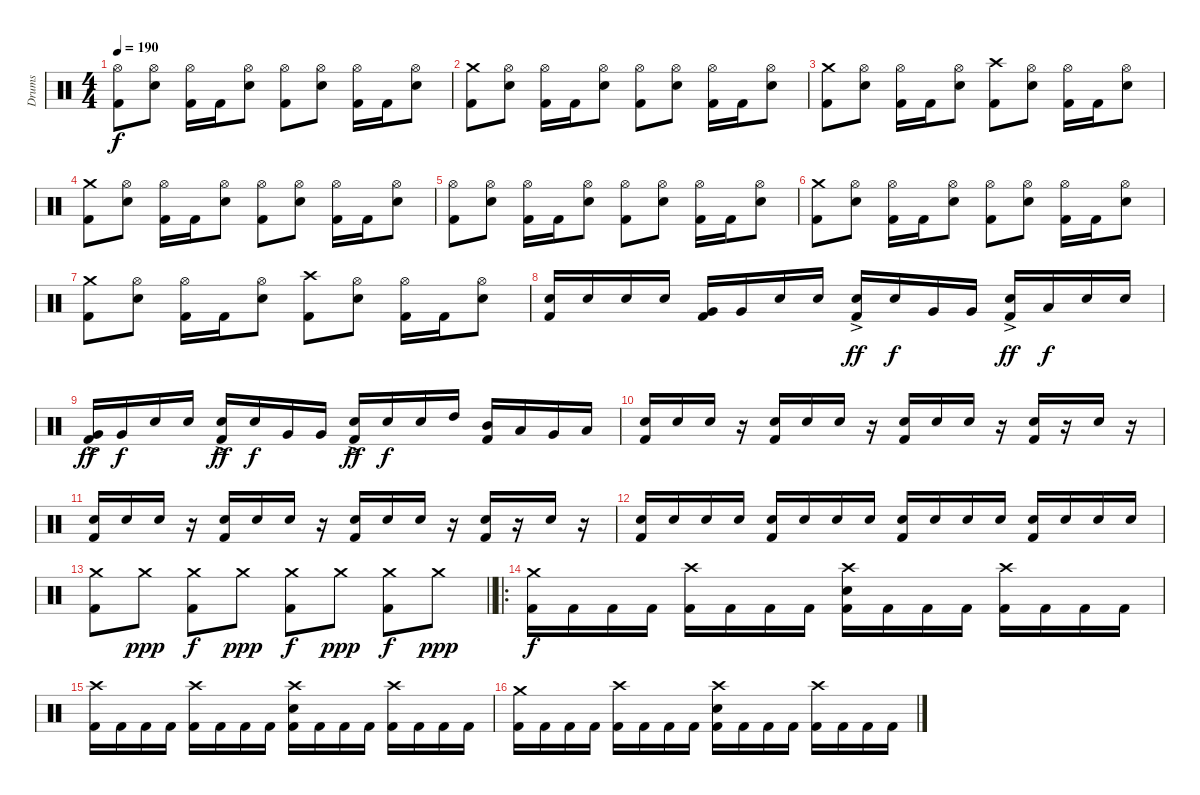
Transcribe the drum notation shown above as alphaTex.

\track ("Drums" "Drums") {instrument percussion}
\staff {score}
\articulation defaults
\ts (4 4)
\tempo 190
\clef neutral
\ks c
("Hi-Hat (open)" "Kick (hit) 2").8{dy f} ("Hi-Hat (open)" "Electric Snare (hit)").8 ("Hi-Hat (open)" "Kick (hit) 2").16 "Kick (hit) 2".16 ("Hi-Hat (open)" "Electric Snare (hit)").8 ("Hi-Hat (open)" "Kick (hit) 2").8 ("Hi-Hat (open)" "Electric Snare (hit)").8 ("Hi-Hat (open)" "Kick (hit) 2").16 "Kick (hit) 2".16 ("Hi-Hat (open)" "Electric Snare (hit)").8 |
("Crash medium (hit)" "Kick (hit) 2").8 ("Hi-Hat (open)" "Electric Snare (hit)").8 ("Hi-Hat (open)" "Kick (hit) 2").16 "Kick (hit) 2".16 ("Hi-Hat (open)" "Electric Snare (hit)").8 ("Hi-Hat (open)" "Kick (hit) 2").8 ("Hi-Hat (open)" "Electric Snare (hit)").8 ("Hi-Hat (open)" "Kick (hit) 2").16 "Kick (hit) 2".16 ("Hi-Hat (open)" "Electric Snare (hit)").8 |
("Crash medium (hit)" "Kick (hit) 2").8 ("Hi-Hat (open)" "Electric Snare (hit)").8 ("Hi-Hat (open)" "Kick (hit) 2").16 "Kick (hit) 2".16 ("Hi-Hat (open)" "Electric Snare (hit)").8 ("Crash high (hit)" "Kick (hit) 2").8 ("Hi-Hat (open)" "Electric Snare (hit)").8 ("Hi-Hat (open)" "Kick (hit) 2").16 "Kick (hit) 2".16 ("Hi-Hat (open)" "Electric Snare (hit)").8 |
("Crash medium (hit)" "Kick (hit) 2").8 ("Hi-Hat (open)" "Electric Snare (hit)").8 ("Hi-Hat (open)" "Kick (hit) 2").16 "Kick (hit) 2".16 ("Hi-Hat (open)" "Electric Snare (hit)").8 ("Hi-Hat (open)" "Kick (hit) 2").8 ("Hi-Hat (open)" "Electric Snare (hit)").8 ("Hi-Hat (open)" "Kick (hit) 2").16 "Kick (hit) 2".16 ("Hi-Hat (open)" "Electric Snare (hit)").8 |
("Hi-Hat (open)" "Kick (hit) 2").8 ("Hi-Hat (open)" "Electric Snare (hit)").8 ("Hi-Hat (open)" "Kick (hit) 2").16 "Kick (hit) 2".16 ("Hi-Hat (open)" "Electric Snare (hit)").8 ("Hi-Hat (open)" "Kick (hit) 2").8 ("Hi-Hat (open)" "Electric Snare (hit)").8 ("Hi-Hat (open)" "Kick (hit) 2").16 "Kick (hit) 2".16 ("Hi-Hat (open)" "Electric Snare (hit)").8 |
("Crash medium (hit)" "Kick (hit) 2").8 ("Hi-Hat (open)" "Electric Snare (hit)").8 ("Hi-Hat (open)" "Kick (hit) 2").16 "Kick (hit) 2".16 ("Hi-Hat (open)" "Electric Snare (hit)").8 ("Hi-Hat (open)" "Kick (hit) 2").8 ("Hi-Hat (open)" "Electric Snare (hit)").8 ("Hi-Hat (open)" "Kick (hit) 2").16 "Kick (hit) 2".16 ("Hi-Hat (open)" "Electric Snare (hit)").8 |
("Crash medium (hit)" "Kick (hit) 2").8 ("Hi-Hat (open)" "Electric Snare (hit)").8 ("Hi-Hat (open)" "Kick (hit) 2").16 "Kick (hit) 2".16 ("Hi-Hat (open)" "Electric Snare (hit)").8 ("Crash high (hit)" "Kick (hit) 2").8 ("Hi-Hat (open)" "Electric Snare (hit)").8 ("Hi-Hat (open)" "Kick (hit) 2").16 "Kick (hit) 2".16 ("Hi-Hat (open)" "Electric Snare (hit)").8 |
("Electric Snare (hit)" "Kick (hit) 2").16 "Electric Snare (hit)".16 "Electric Snare (hit)".16 "Electric Snare (hit)".16 ("Very Low Tom (hit)" "Kick (hit) 2").16 "Very Low Tom (hit)".16 "Electric Snare (hit)".16 "Electric Snare (hit)".16 ("Electric Snare (hit)"{ac} "Kick (hit) 2").16{dy ff} "Electric Snare (hit)".16{dy f} "Very Low Tom (hit)".16 "Very Low Tom (hit)".16 ("Electric Snare (hit)"{ac} "Kick (hit) 2").16{dy ff} "Low Floor Tom (hit)".16{dy f} "Electric Snare (hit)".16 "Electric Snare (hit)".16 |
("Very Low Tom (hit)"{ac} "Kick (hit) 2").16{dy ff} "Very Low Tom (hit)".16{dy f} "Electric Snare (hit)".16 "Electric Snare (hit)".16 ("Electric Snare (hit)"{ac} "Kick (hit) 2").16{dy ff} "Electric Snare (hit)".16{dy f} "Very Low Tom (hit)".16 "Very Low Tom (hit)".16 ("Electric Snare (hit)"{ac} "Kick (hit) 2").16{dy ff} "Electric Snare (hit)".16{dy f} "Electric Snare (hit)".16 "High Tom (hit)".16 ("Mid Tom (hit)" "Kick (hit) 2").16 "Low Tom (hit)".16 "Very Low Tom (hit)".16 "Low Floor Tom (hit)".16 |
("Electric Snare (hit)" "Kick (hit) 2").16 "Electric Snare (hit)".16 "Electric Snare (hit)".16 r.16 ("Electric Snare (hit)" "Kick (hit) 2").16 "Electric Snare (hit)".16 "Electric Snare (hit)".16 r.16 ("Electric Snare (hit)" "Kick (hit) 2").16 "Electric Snare (hit)".16 "Electric Snare (hit)".16 r.16 ("Electric Snare (hit)" "Kick (hit) 2").16 r.16 "Electric Snare (hit)".16 r.16 |
("Electric Snare (hit)" "Kick (hit) 2").16 "Electric Snare (hit)".16 "Electric Snare (hit)".16 r.16 ("Electric Snare (hit)" "Kick (hit) 2").16 "Electric Snare (hit)".16 "Electric Snare (hit)".16 r.16 ("Electric Snare (hit)" "Kick (hit) 2").16 "Electric Snare (hit)".16 "Electric Snare (hit)".16 r.16 ("Electric Snare (hit)" "Kick (hit) 2").16 r.16 "Electric Snare (hit)".16 r.16 |
("Electric Snare (hit)" "Kick (hit) 2").16 "Electric Snare (hit)".16 "Electric Snare (hit)".16 "Electric Snare (hit)".16 ("Electric Snare (hit)" "Kick (hit) 2").16 "Electric Snare (hit)".16 "Electric Snare (hit)".16 "Electric Snare (hit)".16 ("Electric Snare (hit)" "Kick (hit) 2").16 "Electric Snare (hit)".16 "Electric Snare (hit)".16 "Electric Snare (hit)".16 ("Electric Snare (hit)" "Kick (hit) 2").16 "Electric Snare (hit)".16 "Electric Snare (hit)".16 "Electric Snare (hit)".16 |
\barLineRight lightlight
("Crash medium (hit)" "Kick (hit) 2").8 "Crash medium (hit)".8{dy ppp} ("Crash medium (hit)" "Kick (hit) 2").8{dy f} "Crash medium (hit)".8{dy ppp} ("Crash medium (hit)" "Kick (hit) 2").8{dy f} "Crash medium (hit)".8{dy ppp} ("Crash medium (hit)" "Kick (hit) 2").8{dy f} "Crash medium (hit)".8{dy ppp} |
\ro
("Crash medium (hit)" "Kick (hit) 2").16{dy f} "Kick (hit) 2".16 "Kick (hit) 2".16 "Kick (hit) 2".16 ("Crash high (hit)" "Kick (hit) 2").16 "Kick (hit) 2".16 "Kick (hit) 2".16 "Kick (hit) 2".16 ("Crash high (hit)" "Electric Snare (hit)" "Kick (hit) 2").16 "Kick (hit) 2".16 "Kick (hit) 2".16 "Kick (hit) 2".16 ("Crash high (hit)" "Kick (hit) 2").16 "Kick (hit) 2".16 "Kick (hit) 2".16 "Kick (hit) 2".16 |
("Crash high (hit)" "Kick (hit) 2").16 "Kick (hit) 2".16 "Kick (hit) 2".16 "Kick (hit) 2".16 ("Crash high (hit)" "Kick (hit) 2").16 "Kick (hit) 2".16 "Kick (hit) 2".16 "Kick (hit) 2".16 ("Crash high (hit)" "Electric Snare (hit)" "Kick (hit) 2").16 "Kick (hit) 2".16 "Kick (hit) 2".16 "Kick (hit) 2".16 ("Crash high (hit)" "Kick (hit) 2").16 "Kick (hit) 2".16 "Kick (hit) 2".16 "Kick (hit) 2".16 |
("Crash medium (hit)" "Kick (hit) 2").16 "Kick (hit) 2".16 "Kick (hit) 2".16 "Kick (hit) 2".16 ("Crash high (hit)" "Kick (hit) 2").16 "Kick (hit) 2".16 "Kick (hit) 2".16 "Kick (hit) 2".16 ("Crash high (hit)" "Electric Snare (hit)" "Kick (hit) 2").16 "Kick (hit) 2".16 "Kick (hit) 2".16 "Kick (hit) 2".16 ("Crash high (hit)" "Kick (hit) 2").16 "Kick (hit) 2".16 "Kick (hit) 2".16 "Kick (hit) 2".16
